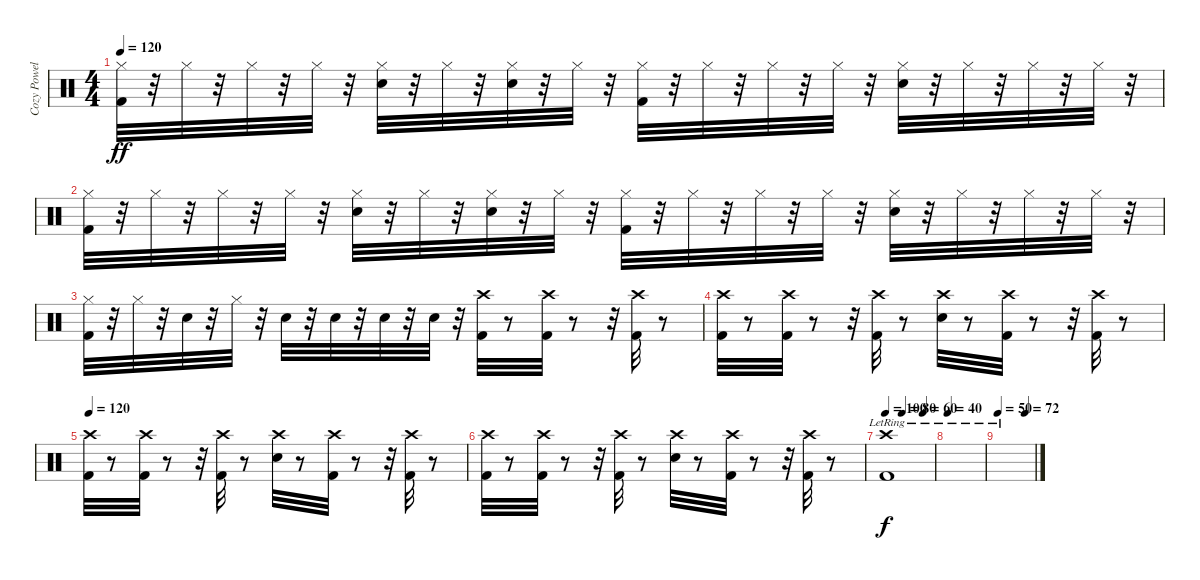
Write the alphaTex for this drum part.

\track ("Cozy Powel" "Cozy Powel") {instrument percussion}
\staff {score}
\articulation defaults
\ts (4 4)
\tempo 120
\clef neutral
\ks c
("Kick (hit) 2" "Hi-Hat (closed)").32{dy ff} r.32 "Hi-Hat (closed)".32 r.32 "Hi-Hat (closed)".32 r.32 "Hi-Hat (closed)".32 r.32 ("Snare (hit) 2" "Hi-Hat (closed)").32 r.32 "Hi-Hat (closed)".32 r.32 ("Snare (hit) 2" "Hi-Hat (closed)").32 r.32 "Hi-Hat (closed)".32 r.32 ("Hi-Hat (closed)" "Kick (hit) 2").32 r.32 "Hi-Hat (closed)".32 r.32 "Hi-Hat (closed)".32 r.32 "Hi-Hat (closed)".32 r.32 ("Hi-Hat (closed)" "Snare (hit) 2").32 r.32 "Hi-Hat (closed)".32 r.32 "Hi-Hat (closed)".32 r.32 "Hi-Hat (closed)".32 r.32 |
("Hi-Hat (closed)" "Kick (hit) 2").32 r.32 "Hi-Hat (closed)".32 r.32 "Hi-Hat (closed)".32 r.32 "Hi-Hat (closed)".32 r.32 ("Hi-Hat (closed)" "Snare (hit) 2").32 r.32 "Hi-Hat (closed)".32 r.32 ("Hi-Hat (closed)" "Snare (hit) 2").32 r.32 "Hi-Hat (closed)".32 r.32 ("Hi-Hat (closed)" "Kick (hit) 2").32 r.32 "Hi-Hat (closed)".32 r.32 "Hi-Hat (closed)".32 r.32 "Hi-Hat (closed)".32 r.32 ("Hi-Hat (closed)" "Snare (hit) 2").32 r.32 "Hi-Hat (closed)".32 r.32 "Hi-Hat (closed)".32 r.32 "Hi-Hat (closed)".32 r.32 |
("Hi-Hat (closed)" "Kick (hit) 2").32 r.32 "Hi-Hat (closed)".32 r.32 "Snare (hit) 2".32 r.32 "Hi-Hat (closed)".32 r.32 "Snare (hit) 2".32 r.32 "Snare (hit) 2".32 r.32 "Snare (hit) 2".32 r.32 "Snare (hit) 2".32 r.32 ("Kick (hit) 2" "Crash high (hit)").32 r.8 ("Kick (hit) 2" "Crash high (hit)").32 r.8 r.32 ("Kick (hit) 2" "Crash high (hit)").32 r.8 |
("Kick (hit) 2" "Crash high (hit)").32 r.8 ("Kick (hit) 2" "Crash high (hit)").32 r.8 r.32 ("Kick (hit) 2" "Crash high (hit)").32 r.8 ("Snare (hit) 2" "Crash high (hit)").32 r.8 ("Crash high (hit)" "Kick (hit) 2").32 r.8 r.32 ("Crash high (hit)" "Kick (hit) 2").32 r.8 |
\tempo 120
("Crash high (hit)" "Kick (hit) 2").32 r.8 ("Crash high (hit)" "Kick (hit) 2").32 r.8 r.32 ("Crash high (hit)" "Kick (hit) 2").32 r.8 ("Snare (hit) 2" "Crash high (hit)").32 r.8 ("Kick (hit) 2" "Crash high (hit)").32 r.8 r.32 ("Kick (hit) 2" "Crash high (hit)").32 r.8 |
("Crash high (hit)" "Kick (hit) 2").32 r.8 ("Crash high (hit)" "Kick (hit) 2").32 r.8 r.32 ("Crash high (hit)" "Kick (hit) 2").32 r.8 ("Snare (hit) 2" "Crash high (hit)").32 r.8 ("Kick (hit) 2" "Crash high (hit)").32 r.8 r.32 ("Kick (hit) 2" "Crash high (hit)").32 r.8 |
\tempo 100
\tempo (80 0.34375)
\tempo (60 0.78125)
("Kick (hit) 2"{lr} "Crash high (hit)").1{dy f} |
\tempo 40
|
\tempo 50
\tempo (72 0.75)
